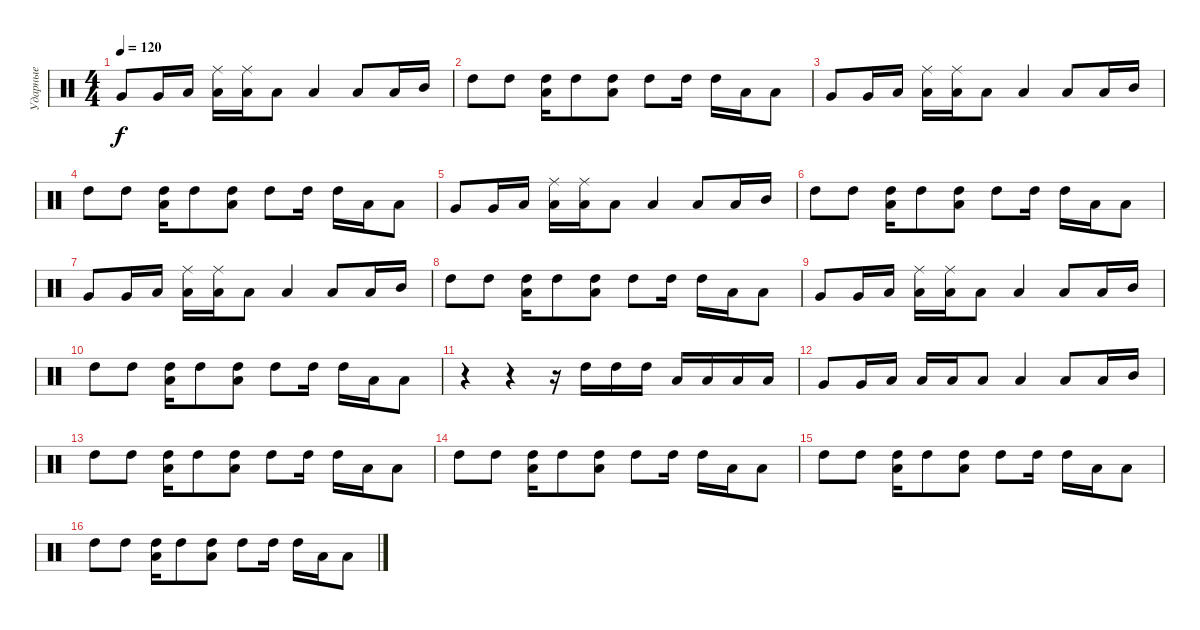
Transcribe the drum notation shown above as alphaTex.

\track ("Ударные" "Ударные") {instrument percussion}
\staff {score}
\articulation defaults
\ts (4 4)
\tempo 120
\clef neutral
\ks c "Very Low Tom (hit)".8{dy f} "Very Low Tom (hit)".16 "Low Tom (hit)".16
("Low Floor Tom (hit)" "Ride (middle)").16 ("Low Floor Tom (hit)" "Ride (middle)").16 "Low Floor Tom (hit)".8 "Low Floor Tom (hit)".4 "Low Floor Tom (hit)".8 "Low Floor Tom (hit)".16 "Mid Tom (hit)".16 |
"High Tom (hit)".8 "High Tom (hit)".8 ("High Tom (hit)" "Low Floor Tom (hit)").16 "High Tom (hit)".8 ("High Tom (hit)" "Low Floor Tom (hit)").8 "High Tom (hit)".8 "High Tom (hit)".16 "High Tom (hit)".16 "Low Floor Tom (hit)".16 "Low Floor Tom (hit)".8 |
"Very Low Tom (hit)".8 "Very Low Tom (hit)".16 "Low Tom (hit)".16 ("Low Floor Tom (hit)" "Ride (middle)").16 ("Low Floor Tom (hit)" "Ride (middle)").16 "Low Floor Tom (hit)".8 "Low Floor Tom (hit)".4 "Low Floor Tom (hit)".8 "Low Floor Tom (hit)".16 "Mid Tom (hit)".16 |
"High Tom (hit)".8 "High Tom (hit)".8 ("High Tom (hit)" "Low Floor Tom (hit)").16 "High Tom (hit)".8 ("High Tom (hit)" "Low Floor Tom (hit)").8 "High Tom (hit)".8 "High Tom (hit)".16 "High Tom (hit)".16 "Low Floor Tom (hit)".16 "Low Floor Tom (hit)".8 |
"Very Low Tom (hit)".8 "Very Low Tom (hit)".16 "Low Tom (hit)".16 ("Low Floor Tom (hit)" "Ride (middle)").16 ("Low Floor Tom (hit)" "Ride (middle)").16 "Low Floor Tom (hit)".8 "Low Floor Tom (hit)".4 "Low Floor Tom (hit)".8 "Low Floor Tom (hit)".16 "Mid Tom (hit)".16 |
"High Tom (hit)".8 "High Tom (hit)".8 ("High Tom (hit)" "Low Floor Tom (hit)").16 "High Tom (hit)".8 ("High Tom (hit)" "Low Floor Tom (hit)").8 "High Tom (hit)".8 "High Tom (hit)".16 "High Tom (hit)".16 "Low Floor Tom (hit)".16 "Low Floor Tom (hit)".8 |
"Very Low Tom (hit)".8 "Very Low Tom (hit)".16 "Low Tom (hit)".16 ("Low Floor Tom (hit)" "Ride (middle)").16 ("Low Floor Tom (hit)" "Ride (middle)").16 "Low Floor Tom (hit)".8 "Low Floor Tom (hit)".4 "Low Floor Tom (hit)".8 "Low Floor Tom (hit)".16 "Mid Tom (hit)".16 |
"High Tom (hit)".8 "High Tom (hit)".8 ("High Tom (hit)" "Low Floor Tom (hit)").16 "High Tom (hit)".8 ("High Tom (hit)" "Low Floor Tom (hit)").8 "High Tom (hit)".8 "High Tom (hit)".16 "High Tom (hit)".16 "Low Floor Tom (hit)".16 "Low Floor Tom (hit)".8 |
"Very Low Tom (hit)".8 "Very Low Tom (hit)".16 "Low Tom (hit)".16 ("Low Floor Tom (hit)" "Ride (middle)").16 ("Low Floor Tom (hit)" "Ride (middle)").16 "Low Floor Tom (hit)".8 "Low Floor Tom (hit)".4 "Low Floor Tom (hit)".8 "Low Floor Tom (hit)".16 "Mid Tom (hit)".16 |
"High Tom (hit)".8 "High Tom (hit)".8 ("High Tom (hit)" "Low Floor Tom (hit)").16 "High Tom (hit)".8 ("High Tom (hit)" "Low Floor Tom (hit)").8 "High Tom (hit)".8 "High Tom (hit)".16 "High Tom (hit)".16 "Low Floor Tom (hit)".16 "Low Floor Tom (hit)".8 |
r.4 r.4 r.16 "High Tom (hit)".16 "High Tom (hit)".16 "High Tom (hit)".16 "Low Tom (hit)".16 "Low Tom (hit)".16 "Low Tom (hit)".16 "Low Floor Tom (hit)".16 |
"Very Low Tom (hit)".8 "Very Low Tom (hit)".16 "Low Tom (hit)".16 "Low Floor Tom (hit)".16 "Low Floor Tom (hit)".16 "Low Floor Tom (hit)".8 "Low Floor Tom (hit)".4 "Low Floor Tom (hit)".8 "Low Floor Tom (hit)".16 "Mid Tom (hit)".16 |
"High Tom (hit)".8 "High Tom (hit)".8 ("High Tom (hit)" "Low Floor Tom (hit)").16 "High Tom (hit)".8 ("High Tom (hit)" "Low Floor Tom (hit)").8 "High Tom (hit)".8 "High Tom (hit)".16 "High Tom (hit)".16 "Low Floor Tom (hit)".16 "Low Floor Tom (hit)".8 |
"High Tom (hit)".8 "High Tom (hit)".8 ("High Tom (hit)" "Low Floor Tom (hit)").16 "High Tom (hit)".8 ("High Tom (hit)" "Low Floor Tom (hit)").8 "High Tom (hit)".8 "High Tom (hit)".16 "High Tom (hit)".16 "Low Floor Tom (hit)".16 "Low Floor Tom (hit)".8 |
"High Tom (hit)".8 "High Tom (hit)".8 ("High Tom (hit)" "Low Floor Tom (hit)").16 "High Tom (hit)".8 ("High Tom (hit)" "Low Floor Tom (hit)").8 "High Tom (hit)".8 "High Tom (hit)".16 "High Tom (hit)".16 "Low Floor Tom (hit)".16 "Low Floor Tom (hit)".8 |
"High Tom (hit)".8 "High Tom (hit)".8 ("High Tom (hit)" "Low Floor Tom (hit)").16 "High Tom (hit)".8 ("High Tom (hit)" "Low Floor Tom (hit)").8 "High Tom (hit)".8 "High Tom (hit)".16 "High Tom (hit)".16 "Low Floor Tom (hit)".16 "Low Floor Tom (hit)".8
